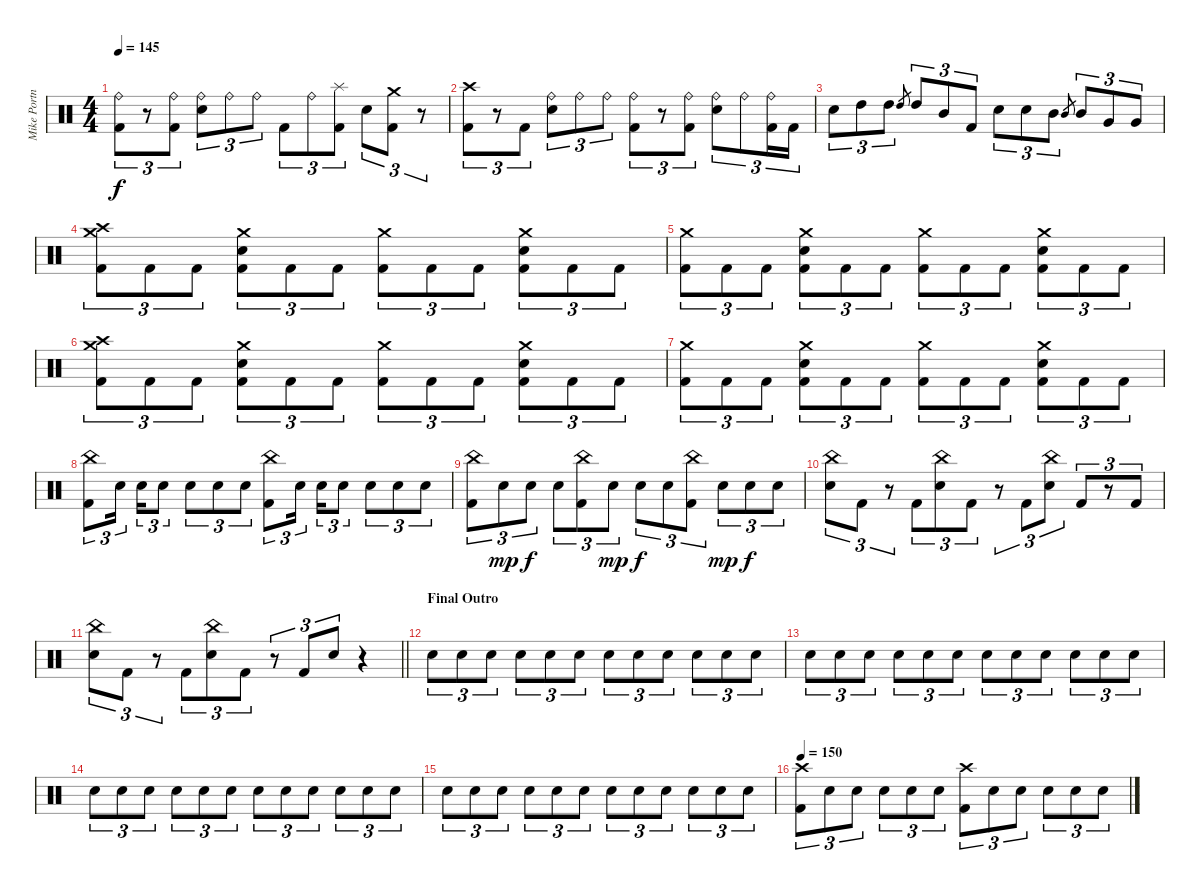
\track ("Mike Portnoy" "Mike Portn") {instrument percussion}
\staff {score}
\articulation defaults
\ts (4 4)
\tempo 145
\clef neutral
\ks c
("Ride (bell)" "Kick (hit) 2").8{tu (3 2) dy f} r.8{tu (3 2)} ("Ride (bell)" "Kick (hit) 2").8{tu (3 2)} ("Ride (bell)" "Electric Snare (hit)").8{tu (3 2)} "Ride (bell)".8{tu (3 2)} "Ride (bell)".8{tu (3 2)} "Kick (hit) 2".8{tu (3 2)} "Ride (bell)".8{tu (3 2)} ("Splash (hit)" "Kick (hit) 2").8{tu (3 2)} "Electric Snare (hit)".8{tu (3 2)} ("Crash medium (hit)" "Kick (hit) 2").8{tu (3 2)} r.8{tu (3 2)} |
("Crash high (hit)" "Kick (hit) 2").8{tu (3 2)} r.8{tu (3 2)} "Kick (hit) 2".8{tu (3 2)} ("Ride (bell)" "Electric Snare (hit)").8{tu (3 2)} "Ride (bell)".8{tu (3 2)} "Ride (bell)".8{tu (3 2)} ("Ride (bell)" "Kick (hit) 2").8{tu (3 2)} r.8{tu (3 2)} ("Ride (bell)" "Kick (hit) 2").8{tu (3 2)} ("Ride (bell)" "Electric Snare (hit)").8{tu (3 2)} "Ride (bell)".8{tu (3 2)} ("Ride (bell)" "Kick (hit) 2").16{tu (3 2)} "Kick (hit) 2".16{tu (3 2)} |
"Electric Snare (hit)".8{tu (3 2)} "High Tom (hit)".8{tu (3 2)} "High Tom (hit)".8{tu (3 2)} "High Tom (hit)".8{gr} "High Tom (hit)".8{tu (3 2)} "Mid Tom (hit)".8{tu (3 2)} "Kick (hit) 2".8{tu (3 2)} "Electric Snare (hit)".8{tu (3 2)} "Electric Snare (hit)".8{tu (3 2)} "Mid Tom (hit)".8{tu (3 2)} "Mid Tom (hit)".8{gr} "Mid Tom (hit)".8{tu (3 2)} "Very Low Tom (hit)".8{tu (3 2)} "Very Low Tom (hit)".8{tu (3 2)} |
("Crash medium (hit)" "Crash high (hit)" "Kick (hit) 2").8{tu (3 2)} "Kick (hit) 2".8{tu (3 2)} "Kick (hit) 2".8{tu (3 2)} ("Crash medium (hit)" "Electric Snare (hit)" "Kick (hit) 2").8{tu (3 2)} "Kick (hit) 2".8{tu (3 2)} "Kick (hit) 2".8{tu (3 2)} ("Crash medium (hit)" "Kick (hit) 2").8{tu (3 2)} "Kick (hit) 2".8{tu (3 2)} "Kick (hit) 2".8{tu (3 2)} ("Crash medium (hit)" "Electric Snare (hit)" "Kick (hit) 2").8{tu (3 2)} "Kick (hit) 2".8{tu (3 2)} "Kick (hit) 2".8{tu (3 2)} |
("Crash medium (hit)" "Kick (hit) 2").8{tu (3 2)} "Kick (hit) 2".8{tu (3 2)} "Kick (hit) 2".8{tu (3 2)} ("Crash medium (hit)" "Electric Snare (hit)" "Kick (hit) 2").8{tu (3 2)} "Kick (hit) 2".8{tu (3 2)} "Kick (hit) 2".8{tu (3 2)} ("Crash medium (hit)" "Kick (hit) 2").8{tu (3 2)} "Kick (hit) 2".8{tu (3 2)} "Kick (hit) 2".8{tu (3 2)} ("Crash medium (hit)" "Electric Snare (hit)" "Kick (hit) 2").8{tu (3 2)} "Kick (hit) 2".8{tu (3 2)} "Kick (hit) 2".8{tu (3 2)} |
("Crash medium (hit)" "Crash high (hit)" "Kick (hit) 2").8{tu (3 2)} "Kick (hit) 2".8{tu (3 2)} "Kick (hit) 2".8{tu (3 2)} ("Crash medium (hit)" "Electric Snare (hit)" "Kick (hit) 2").8{tu (3 2)} "Kick (hit) 2".8{tu (3 2)} "Kick (hit) 2".8{tu (3 2)} ("Crash medium (hit)" "Kick (hit) 2").8{tu (3 2)} "Kick (hit) 2".8{tu (3 2)} "Kick (hit) 2".8{tu (3 2)} ("Crash medium (hit)" "Electric Snare (hit)" "Kick (hit) 2").8{tu (3 2)} "Kick (hit) 2".8{tu (3 2)} "Kick (hit) 2".8{tu (3 2)} |
("Crash medium (hit)" "Kick (hit) 2").8{tu (3 2)} "Kick (hit) 2".8{tu (3 2)} "Kick (hit) 2".8{tu (3 2)} ("Crash medium (hit)" "Electric Snare (hit)" "Kick (hit) 2").8{tu (3 2)} "Kick (hit) 2".8{tu (3 2)} "Kick (hit) 2".8{tu (3 2)} ("Crash medium (hit)" "Kick (hit) 2").8{tu (3 2)} "Kick (hit) 2".8{tu (3 2)} "Kick (hit) 2".8{tu (3 2)} ("Crash medium (hit)" "Electric Snare (hit)" "Kick (hit) 2").8{tu (3 2)} "Kick (hit) 2".8{tu (3 2)} "Kick (hit) 2".8{tu (3 2)} |
("China (hit)" "Kick (hit) 2").8{tu (3 2)} "Electric Snare (hit)".16{tu (3 2) beam splitsecondary} "Electric Snare (hit)".16{tu (3 2)} "Electric Snare (hit)".8{tu (3 2)} "Electric Snare (hit)".8{tu (3 2)} "Electric Snare (hit)".8{tu (3 2)} "Electric Snare (hit)".8{tu (3 2)} ("China (hit)" "Kick (hit) 2").8{tu (3 2)} "Electric Snare (hit)".16{tu (3 2) beam splitsecondary} "Electric Snare (hit)".16{tu (3 2)} "Electric Snare (hit)".8{tu (3 2)} "Electric Snare (hit)".8{tu (3 2)} "Electric Snare (hit)".8{tu (3 2)} "Electric Snare (hit)".8{tu (3 2)} |
("China (hit)" "Kick (hit) 2").8{tu (3 2)} "Electric Snare (hit)".8{tu (3 2) dy mp} "Electric Snare (hit)".8{tu (3 2) dy f} "Electric Snare (hit)".8{tu (3 2)} ("China (hit)" "Kick (hit) 2").8{tu (3 2)} "Electric Snare (hit)".8{tu (3 2) dy mp} "Electric Snare (hit)".8{tu (3 2) dy f} "Electric Snare (hit)".8{tu (3 2)} ("China (hit)" "Kick (hit) 2").8{tu (3 2)} "Electric Snare (hit)".8{tu (3 2) dy mp} "Electric Snare (hit)".8{tu (3 2) dy f} "Electric Snare (hit)".8{tu (3 2)} |
("China (hit)" "Electric Snare (hit)").8{tu (3 2)} "Kick (hit) 2".8{tu (3 2)} r.8{tu (3 2)} "Kick (hit) 2".8{tu (3 2)} ("China (hit)" "Electric Snare (hit)").8{tu (3 2)} "Kick (hit) 2".8{tu (3 2)} r.8{tu (3 2)} "Kick (hit) 2".8{tu (3 2)} ("China (hit)" "Electric Snare (hit)").8{tu (3 2)} "Kick (hit) 2".8{tu (3 2)} r.8{tu (3 2)} "Kick (hit) 2".8{tu (3 2)} |
\barLineRight lightlight
("China (hit)" "Electric Snare (hit)").8{tu (3 2)} "Kick (hit) 2".8{tu (3 2)} r.8{tu (3 2)} "Kick (hit) 2".8{tu (3 2)} ("China (hit)" "Electric Snare (hit)").8{tu (3 2)} "Kick (hit) 2".8{tu (3 2)} r.8{tu (3 2)} "Kick (hit) 2".8{tu (3 2)} "Electric Snare (hit)".8{tu (3 2)} r.4{volume 5} |
\section ("" "Final Outro")
"Electric Snare (hit)".8{tu (3 2) volume 14} "Electric Snare (hit)".8{tu (3 2)} "Electric Snare (hit)".8{tu (3 2)} "Electric Snare (hit)".8{tu (3 2)} "Electric Snare (hit)".8{tu (3 2)} "Electric Snare (hit)".8{tu (3 2)} "Electric Snare (hit)".8{tu (3 2)} "Electric Snare (hit)".8{tu (3 2)} "Electric Snare (hit)".8{tu (3 2)} "Electric Snare (hit)".8{tu (3 2)} "Electric Snare (hit)".8{tu (3 2)} "Electric Snare (hit)".8{tu (3 2)} |
"Electric Snare (hit)".8{tu (3 2)} "Electric Snare (hit)".8{tu (3 2)} "Electric Snare (hit)".8{tu (3 2)} "Electric Snare (hit)".8{tu (3 2)} "Electric Snare (hit)".8{tu (3 2)} "Electric Snare (hit)".8{tu (3 2)} "Electric Snare (hit)".8{tu (3 2)} "Electric Snare (hit)".8{tu (3 2)} "Electric Snare (hit)".8{tu (3 2)} "Electric Snare (hit)".8{tu (3 2)} "Electric Snare (hit)".8{tu (3 2)} "Electric Snare (hit)".8{tu (3 2)} |
"Electric Snare (hit)".8{tu (3 2)} "Electric Snare (hit)".8{tu (3 2)} "Electric Snare (hit)".8{tu (3 2)} "Electric Snare (hit)".8{tu (3 2)} "Electric Snare (hit)".8{tu (3 2)} "Electric Snare (hit)".8{tu (3 2)} "Electric Snare (hit)".8{tu (3 2)} "Electric Snare (hit)".8{tu (3 2)} "Electric Snare (hit)".8{tu (3 2)} "Electric Snare (hit)".8{tu (3 2)} "Electric Snare (hit)".8{tu (3 2)} "Electric Snare (hit)".8{tu (3 2)} |
"Electric Snare (hit)".8{tu (3 2)} "Electric Snare (hit)".8{tu (3 2)} "Electric Snare (hit)".8{tu (3 2)} "Electric Snare (hit)".8{tu (3 2)} "Electric Snare (hit)".8{tu (3 2)} "Electric Snare (hit)".8{tu (3 2)} "Electric Snare (hit)".8{tu (3 2)} "Electric Snare (hit)".8{tu (3 2)} "Electric Snare (hit)".8{tu (3 2)} "Electric Snare (hit)".8{tu (3 2)} "Electric Snare (hit)".8{tu (3 2)} "Electric Snare (hit)".8{tu (3 2)} |
\tempo 150
("Crash high (hit)" "Kick (hit) 2").8{tu (3 2)} "Electric Snare (hit)".8{tu (3 2)} "Electric Snare (hit)".8{tu (3 2)} "Electric Snare (hit)".8{tu (3 2)} "Electric Snare (hit)".8{tu (3 2)} "Electric Snare (hit)".8{tu (3 2)} ("Crash high (hit)" "Kick (hit) 2").8{tu (3 2)} "Electric Snare (hit)".8{tu (3 2)} "Electric Snare (hit)".8{tu (3 2)} "Electric Snare (hit)".8{tu (3 2)} "Electric Snare (hit)".8{tu (3 2)} "Electric Snare (hit)".8{tu (3 2)}
